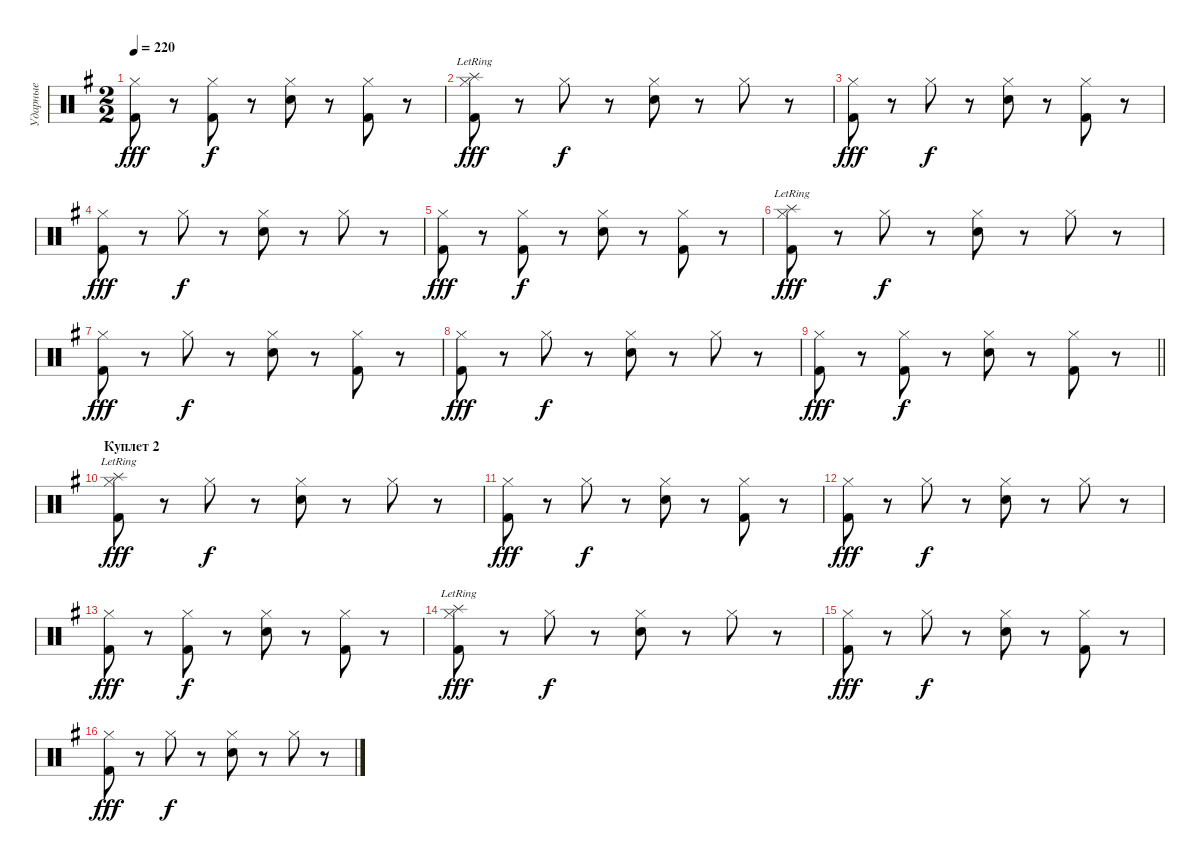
\track ("Ударные" "Ударные") {instrument percussion}
\staff {score}
\articulation defaults
\ts (2 2)
\tempo 220
\clef neutral
\ks eminor
("Hi-Hat (closed)" "Kick (hit) 2").8{dy fff} r.8 ("Hi-Hat (closed)" "Kick (hit) 2").8{dy f} r.8 ("Hi-Hat (closed)" "Snare (hit) 2").8 r.8 ("Hi-Hat (closed)" "Kick (hit) 2").8 r.8 |
("Hi-Hat (closed)" "Splash (hit)"{lr} "Kick (hit) 2").8{dy fff} r.8 "Hi-Hat (closed)".8{dy f} r.8 ("Hi-Hat (closed)" "Snare (hit) 2").8 r.8 "Hi-Hat (closed)".8 r.8 |
("Hi-Hat (closed)" "Kick (hit) 2").8{dy fff} r.8 "Hi-Hat (closed)".8{dy f} r.8 ("Hi-Hat (closed)" "Snare (hit) 2").8 r.8 ("Hi-Hat (closed)" "Kick (hit) 2").8 r.8 |
("Hi-Hat (closed)" "Kick (hit) 2").8{dy fff} r.8 "Hi-Hat (closed)".8{dy f} r.8 ("Hi-Hat (closed)" "Snare (hit) 2").8 r.8 "Hi-Hat (closed)".8 r.8 |
("Hi-Hat (closed)" "Kick (hit) 2").8{dy fff} r.8 ("Hi-Hat (closed)" "Kick (hit) 2").8{dy f} r.8 ("Hi-Hat (closed)" "Snare (hit) 2").8 r.8 ("Hi-Hat (closed)" "Kick (hit) 2").8 r.8 |
("Hi-Hat (closed)" "Splash (hit)"{lr} "Kick (hit) 2").8{dy fff} r.8 "Hi-Hat (closed)".8{dy f} r.8 ("Hi-Hat (closed)" "Snare (hit) 2").8 r.8 "Hi-Hat (closed)".8 r.8 |
("Hi-Hat (closed)" "Kick (hit) 2").8{dy fff} r.8 "Hi-Hat (closed)".8{dy f} r.8 ("Hi-Hat (closed)" "Snare (hit) 2").8 r.8 ("Hi-Hat (closed)" "Kick (hit) 2").8 r.8 |
("Hi-Hat (closed)" "Kick (hit) 2").8{dy fff} r.8 "Hi-Hat (closed)".8{dy f} r.8 ("Hi-Hat (closed)" "Snare (hit) 2").8 r.8 "Hi-Hat (closed)".8 r.8 |
\barLineRight lightlight
("Hi-Hat (closed)" "Kick (hit) 2").8{dy fff} r.8 ("Hi-Hat (closed)" "Kick (hit) 2").8{dy f} r.8 ("Hi-Hat (closed)" "Snare (hit) 2").8 r.8 ("Hi-Hat (closed)" "Kick (hit) 2").8 r.8 |
\section ("" "Куплет 2")
("Hi-Hat (closed)" "Splash (hit)"{lr} "Kick (hit) 2").8{dy fff} r.8 "Hi-Hat (closed)".8{dy f} r.8 ("Hi-Hat (closed)" "Snare (hit) 2").8 r.8 "Hi-Hat (closed)".8 r.8 |
("Hi-Hat (closed)" "Kick (hit) 2").8{dy fff} r.8 "Hi-Hat (closed)".8{dy f} r.8 ("Hi-Hat (closed)" "Snare (hit) 2").8 r.8 ("Hi-Hat (closed)" "Kick (hit) 2").8 r.8 |
("Hi-Hat (closed)" "Kick (hit) 2").8{dy fff} r.8 "Hi-Hat (closed)".8{dy f} r.8 ("Hi-Hat (closed)" "Snare (hit) 2").8 r.8 "Hi-Hat (closed)".8 r.8 |
("Hi-Hat (closed)" "Kick (hit) 2").8{dy fff} r.8 ("Hi-Hat (closed)" "Kick (hit) 2").8{dy f} r.8 ("Hi-Hat (closed)" "Snare (hit) 2").8 r.8 ("Hi-Hat (closed)" "Kick (hit) 2").8 r.8 |
("Hi-Hat (closed)" "Splash (hit)"{lr} "Kick (hit) 2").8{dy fff} r.8 "Hi-Hat (closed)".8{dy f} r.8 ("Hi-Hat (closed)" "Snare (hit) 2").8 r.8 "Hi-Hat (closed)".8 r.8 |
("Hi-Hat (closed)" "Kick (hit) 2").8{dy fff} r.8 "Hi-Hat (closed)".8{dy f} r.8 ("Hi-Hat (closed)" "Snare (hit) 2").8 r.8 ("Hi-Hat (closed)" "Kick (hit) 2").8 r.8 |
("Hi-Hat (closed)" "Kick (hit) 2").8{dy fff} r.8 "Hi-Hat (closed)".8{dy f} r.8 ("Hi-Hat (closed)" "Snare (hit) 2").8 r.8 "Hi-Hat (closed)".8 r.8
